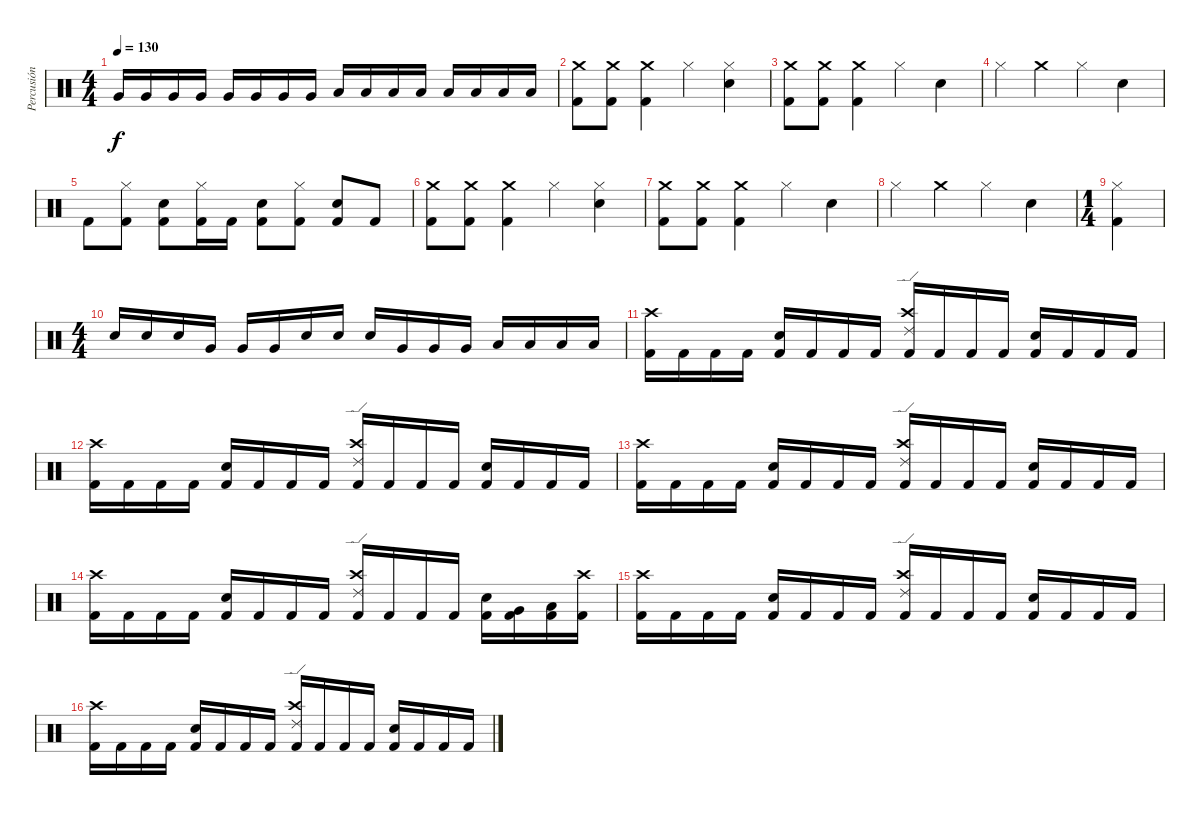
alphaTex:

\track ("Percusión" "Percusión") {instrument percussion}
\staff {score}
\articulation defaults
\ts (4 4)
\tempo 130
\clef neutral
\ks c "Very Low Tom (hit)".16{dy f} "Very Low Tom (hit)".16 "Very Low Tom (hit)".16 "Very Low Tom (hit)".16 "Very Low Tom (hit)".16 "Very Low Tom (hit)".16 "Very Low Tom (hit)".16 "Very Low Tom (hit)".16 "Low Floor Tom (hit)".16 "Low Floor Tom (hit)".16 "Low Floor Tom (hit)".16 "Low Floor Tom (hit)".16 "Low Floor Tom (hit)".16 "Low Floor Tom (hit)".16 "Low Floor Tom (hit)".16 "Low Floor Tom (hit)".16
|
("Crash medium (hit)" "Kick (hit) 2").8 ("Crash medium (hit)" "Kick (hit) 2").8 ("Crash medium (hit)" "Kick (hit) 2").4 "Hi-Hat (closed)".4 ("Hi-Hat (closed)" "Snare (hit) 2").4 |
("Crash medium (hit)" "Kick (hit) 2").8 ("Crash medium (hit)" "Kick (hit) 2").8 ("Crash medium (hit)" "Kick (hit) 2").4 "Hi-Hat (closed)".4 "Snare (hit) 2".4 |
"Hi-Hat (closed)".4 "Crash medium (hit)".4 "Hi-Hat (closed)".4 "Snare (hit) 2".4 |
"Kick (hit) 2".8 ("Hi-Hat (closed)" "Kick (hit) 2").8 ("Snare (hit) 2" "Kick (hit) 2").8 ("Hi-Hat (closed)" "Kick (hit) 2").16 "Kick (hit) 2".16 ("Snare (hit) 2" "Kick (hit) 2").8 ("Hi-Hat (closed)" "Kick (hit) 2").8 ("Snare (hit) 2" "Kick (hit) 2").8 "Kick (hit) 2".8 |
("Crash medium (hit)" "Kick (hit) 2").8 ("Crash medium (hit)" "Kick (hit) 2").8 ("Crash medium (hit)" "Kick (hit) 2").4 "Hi-Hat (closed)".4 ("Hi-Hat (closed)" "Snare (hit) 2").4 |
("Crash medium (hit)" "Kick (hit) 2").8 ("Crash medium (hit)" "Kick (hit) 2").8 ("Crash medium (hit)" "Kick (hit) 2").4 "Hi-Hat (closed)".4 "Snare (hit) 2".4 |
"Hi-Hat (closed)".4 "Crash medium (hit)".4 "Hi-Hat (closed)".4 "Snare (hit) 2".4 |
\ts (1 4)
("Hi-Hat (closed)" "Kick (hit) 2").4 |
\ts (4 4)
"Snare (hit) 2".16 "Snare (hit) 2".16 "Snare (hit) 2".16 "Very Low Tom (hit)".16 "Very Low Tom (hit)".16 "Very Low Tom (hit)".16 "Snare (hit) 2".16 "Snare (hit) 2".16 "Snare (hit) 2".16 "Very Low Tom (hit)".16 "Very Low Tom (hit)".16 "Very Low Tom (hit)".16 "Low Floor Tom (hit)".16 "Low Floor Tom (hit)".16 "Low Floor Tom (hit)".16 "Low Floor Tom (hit)".16 |
("Crash high (hit)" "Kick (hit) 2").16 "Kick (hit) 2".16 "Kick (hit) 2".16 "Kick (hit) 2".16 ("Snare (hit) 2" "Kick (hit) 2").16 "Kick (hit) 2".16 "Kick (hit) 2".16 "Kick (hit) 2".16 ("Ride (edge) 2" "Crash high (hit)" "Kick (hit) 2").16 "Kick (hit) 2".16 "Kick (hit) 2".16 "Kick (hit) 2".16 ("Snare (hit) 2" "Kick (hit) 2").16 "Kick (hit) 2".16 "Kick (hit) 2".16 "Kick (hit) 2".16 |
("Crash high (hit)" "Kick (hit) 2").16 "Kick (hit) 2".16 "Kick (hit) 2".16 "Kick (hit) 2".16 ("Snare (hit) 2" "Kick (hit) 2").16 "Kick (hit) 2".16 "Kick (hit) 2".16 "Kick (hit) 2".16 ("Ride (edge) 2" "Crash high (hit)" "Kick (hit) 2").16 "Kick (hit) 2".16 "Kick (hit) 2".16 "Kick (hit) 2".16 ("Snare (hit) 2" "Kick (hit) 2").16 "Kick (hit) 2".16 "Kick (hit) 2".16 "Kick (hit) 2".16 |
("Crash high (hit)" "Kick (hit) 2").16 "Kick (hit) 2".16 "Kick (hit) 2".16 "Kick (hit) 2".16 ("Snare (hit) 2" "Kick (hit) 2").16 "Kick (hit) 2".16 "Kick (hit) 2".16 "Kick (hit) 2".16 ("Ride (edge) 2" "Crash high (hit)" "Kick (hit) 2").16 "Kick (hit) 2".16 "Kick (hit) 2".16 "Kick (hit) 2".16 ("Snare (hit) 2" "Kick (hit) 2").16 "Kick (hit) 2".16 "Kick (hit) 2".16 "Kick (hit) 2".16 |
("Crash high (hit)" "Kick (hit) 2").16 "Kick (hit) 2".16 "Kick (hit) 2".16 "Kick (hit) 2".16 ("Snare (hit) 2" "Kick (hit) 2").16 "Kick (hit) 2".16 "Kick (hit) 2".16 "Kick (hit) 2".16 ("Ride (edge) 2" "Crash high (hit)" "Kick (hit) 2").16 "Kick (hit) 2".16 "Kick (hit) 2".16 "Kick (hit) 2".16 ("Snare (hit) 2" "Kick (hit) 2").16 ("Very Low Tom (hit)" "Kick (hit) 2").16 ("Low Floor Tom (hit)" "Kick (hit) 2").16 ("Crash high (hit)" "Kick (hit) 2").16 |
("Crash high (hit)" "Kick (hit) 2").16 "Kick (hit) 2".16 "Kick (hit) 2".16 "Kick (hit) 2".16 ("Snare (hit) 2" "Kick (hit) 2").16 "Kick (hit) 2".16 "Kick (hit) 2".16 "Kick (hit) 2".16 ("Ride (edge) 2" "Crash high (hit)" "Kick (hit) 2").16 "Kick (hit) 2".16 "Kick (hit) 2".16 "Kick (hit) 2".16 ("Snare (hit) 2" "Kick (hit) 2").16 "Kick (hit) 2".16 "Kick (hit) 2".16 "Kick (hit) 2".16 |
("Crash high (hit)" "Kick (hit) 2").16 "Kick (hit) 2".16 "Kick (hit) 2".16 "Kick (hit) 2".16 ("Snare (hit) 2" "Kick (hit) 2").16 "Kick (hit) 2".16 "Kick (hit) 2".16 "Kick (hit) 2".16 ("Ride (edge) 2" "Crash high (hit)" "Kick (hit) 2").16 "Kick (hit) 2".16 "Kick (hit) 2".16 "Kick (hit) 2".16 ("Snare (hit) 2" "Kick (hit) 2").16 "Kick (hit) 2".16 "Kick (hit) 2".16 "Kick (hit) 2".16
